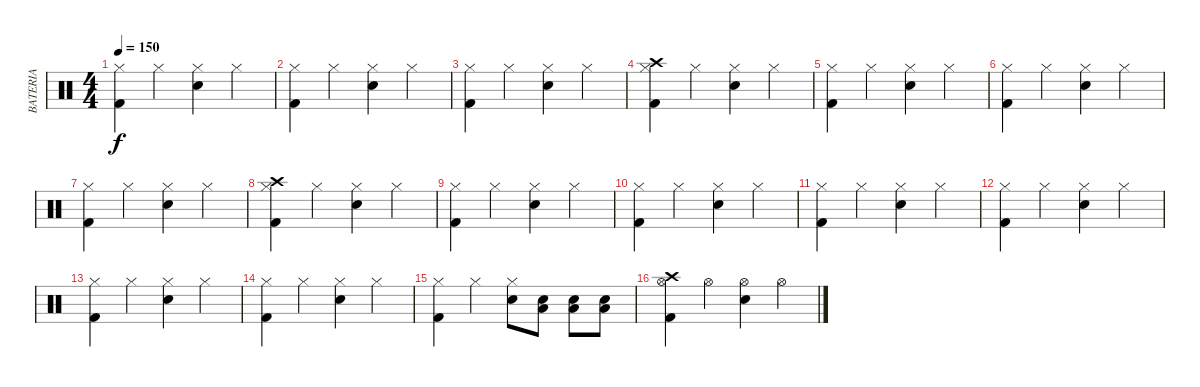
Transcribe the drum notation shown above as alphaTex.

\track ("BATERIA" "BATERIA") {instrument percussion}
\staff {score}
\articulation defaults
\ts (4 4)
\tempo 150
\clef neutral
\ks c
("Hi-Hat (closed)" "Kick (hit) 2").4{dy f} "Hi-Hat (closed)".4 ("Hi-Hat (closed)" "Snare (hit) 2").4 "Hi-Hat (closed)".4 |
("Hi-Hat (closed)" "Kick (hit) 2").4 "Hi-Hat (closed)".4 ("Hi-Hat (closed)" "Snare (hit) 2").4 "Hi-Hat (closed)".4 |
("Hi-Hat (closed)" "Kick (hit) 2").4 "Hi-Hat (closed)".4 ("Hi-Hat (closed)" "Snare (hit) 2").4 "Hi-Hat (closed)".4 |
("Crash high (hit)" "Hi-Hat (closed)" "Kick (hit) 2").4 "Hi-Hat (closed)".4 ("Hi-Hat (closed)" "Snare (hit) 2").4 "Hi-Hat (closed)".4 |
("Hi-Hat (closed)" "Kick (hit) 2").4 "Hi-Hat (closed)".4 ("Hi-Hat (closed)" "Snare (hit) 2").4 "Hi-Hat (closed)".4 |
("Hi-Hat (closed)" "Kick (hit) 2").4 "Hi-Hat (closed)".4 ("Hi-Hat (closed)" "Snare (hit) 2").4 "Hi-Hat (closed)".4 |
("Hi-Hat (closed)" "Kick (hit) 2").4 "Hi-Hat (closed)".4 ("Hi-Hat (closed)" "Snare (hit) 2").4 "Hi-Hat (closed)".4 |
("Crash high (hit)" "Hi-Hat (closed)" "Kick (hit) 2").4 "Hi-Hat (closed)".4 ("Hi-Hat (closed)" "Snare (hit) 2").4 "Hi-Hat (closed)".4 |
("Hi-Hat (closed)" "Kick (hit) 2").4 "Hi-Hat (closed)".4 ("Hi-Hat (closed)" "Snare (hit) 2").4 "Hi-Hat (closed)".4 |
("Hi-Hat (closed)" "Kick (hit) 2").4 "Hi-Hat (closed)".4 ("Hi-Hat (closed)" "Snare (hit) 2").4 "Hi-Hat (closed)".4 |
("Hi-Hat (closed)" "Kick (hit) 2").4 "Hi-Hat (closed)".4 ("Hi-Hat (closed)" "Snare (hit) 2").4 "Hi-Hat (closed)".4 |
("Hi-Hat (closed)" "Kick (hit) 2").4 "Hi-Hat (closed)".4 ("Hi-Hat (closed)" "Snare (hit) 2").4 "Hi-Hat (closed)".4 |
("Hi-Hat (closed)" "Kick (hit) 2").4 "Hi-Hat (closed)".4 ("Hi-Hat (closed)" "Snare (hit) 2").4 "Hi-Hat (closed)".4 |
("Hi-Hat (closed)" "Kick (hit) 2").4 "Hi-Hat (closed)".4 ("Hi-Hat (closed)" "Snare (hit) 2").4 "Hi-Hat (closed)".4 |
("Hi-Hat (closed)" "Kick (hit) 2").4 "Hi-Hat (closed)".4 ("Hi-Hat (closed)" "Snare (hit) 2").8 ("Snare (hit) 2" "Low Floor Tom (hit)").8 ("Snare (hit) 2" "Low Floor Tom (hit)").8 ("Snare (hit) 2" "Low Floor Tom (hit)").8 |
("Crash high (hit)" "Hi-Hat (open)" "Kick (hit) 2").4 "Hi-Hat (open)".4 ("Hi-Hat (open)" "Snare (hit) 2").4 "Hi-Hat (open)".4
